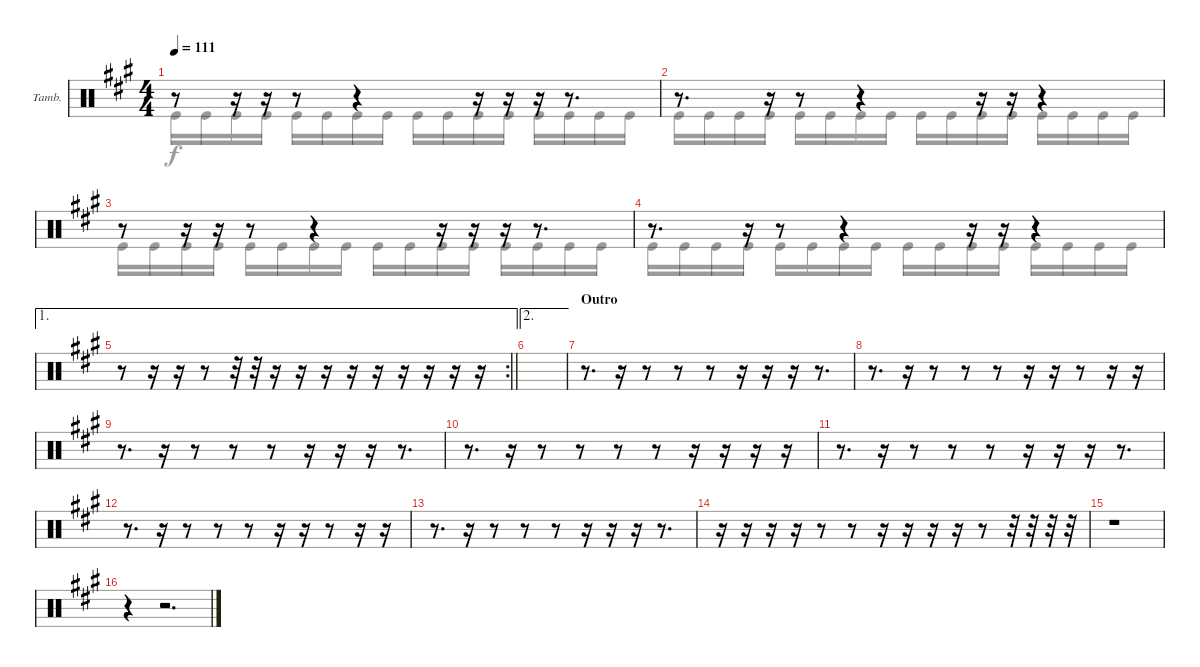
\bracketExtendMode groupsimilarinstruments
\firstSystemTrackNameOrientation horizontal
\otherSystemsTrackNameOrientation horizontal
\track ("Tambourine" "Tamb.") {instrument percussion}
\staff {score}
\articulation defaults
\voice
\ts (4 4)
\tempo 111
\clef neutral
\ks a
r.8{dy fff} r.16 r.16 r.8 r.4 r.16 r.16 r.16 r.8{d} |
r.8{d} r.16 r.8 r.4 r.16 r.16 r.4 |
r.8 r.16 r.16 r.8 r.4 r.16 r.16 r.16 r.8{d} |
r.8{d} r.16 r.8 r.4 r.16 r.16 r.4 |
\ae 1
\rc 2
\barLineRight lightlight
r.8 r.16 r.16 r.8 r.32 r.32 r.16 r.16 r.16 r.16 r.16 r.16 r.16 r.16 r.16 |
\ae 2
|
\section ("" "Outro")
r.8{d dy fff} r.16 r.8 r.8 r.8 r.16 r.16 r.16 r.8{d} |
r.8{d} r.16 r.8 r.8 r.8 r.16 r.16 r.8 r.16 r.16 |
r.8{d} r.16 r.8 r.8 r.8 r.16 r.16 r.16 r.8{d} |
r.8{d} r.16 r.8 r.8 r.8 r.8 r.16 r.16 r.16 r.16 |
r.8{d} r.16 r.8 r.8 r.8 r.16 r.16 r.16 r.8{d} |
r.8{d} r.16 r.8 r.8 r.8 r.16 r.16 r.8 r.16 r.16 |
r.8{d} r.16 r.8 r.8 r.8 r.16 r.16 r.16 r.8{d} |
r.16 r.16 r.16 r.16 r.8 r.8 r.16 r.16 r.16 r.16 r.8 r.32 r.32 r.32 r.32 |
r.1 |
r.4{dy mf} r.2{d}
\voice
\clef neutral
\ottava regular
\simile none
\ks a "Kick (hit)".16{dy f} "Kick (hit)".16 "Kick (hit)".16 "Kick (hit)".16 "Kick (hit)".16 "Kick (hit)".16 "Kick (hit)".16 "Kick (hit)".16 "Kick (hit)".16 "Kick (hit)".16 "Kick (hit)".16 "Kick (hit)".16 "Kick (hit)".16 "Kick (hit)".16 "Kick (hit)".16 "Kick (hit)".16
|
"Kick (hit)".16 "Kick (hit)".16 "Kick (hit)".16 "Kick (hit)".16 "Kick (hit)".16 "Kick (hit)".16 "Kick (hit)".16 "Kick (hit)".16 "Kick (hit)".16 "Kick (hit)".16 "Kick (hit)".16 "Kick (hit)".16 "Kick (hit)".16 "Kick (hit)".16 "Kick (hit)".16 "Kick (hit)".16 |
"Kick (hit)".16 "Kick (hit)".16 "Kick (hit)".16 "Kick (hit)".16 "Kick (hit)".16 "Kick (hit)".16 "Kick (hit)".16 "Kick (hit)".16 "Kick (hit)".16 "Kick (hit)".16 "Kick (hit)".16 "Kick (hit)".16 "Kick (hit)".16 "Kick (hit)".16 "Kick (hit)".16 "Kick (hit)".16 |
"Kick (hit)".16 "Kick (hit)".16 "Kick (hit)".16 "Kick (hit)".16 "Kick (hit)".16 "Kick (hit)".16 "Kick (hit)".16 "Kick (hit)".16 "Kick (hit)".16 "Kick (hit)".16 "Kick (hit)".16 "Kick (hit)".16 "Kick (hit)".16 "Kick (hit)".16 "Kick (hit)".16 "Kick (hit)".16 |
\barLineRight lightlight
|
|
|
|
|
|
|
|
|
|
|
